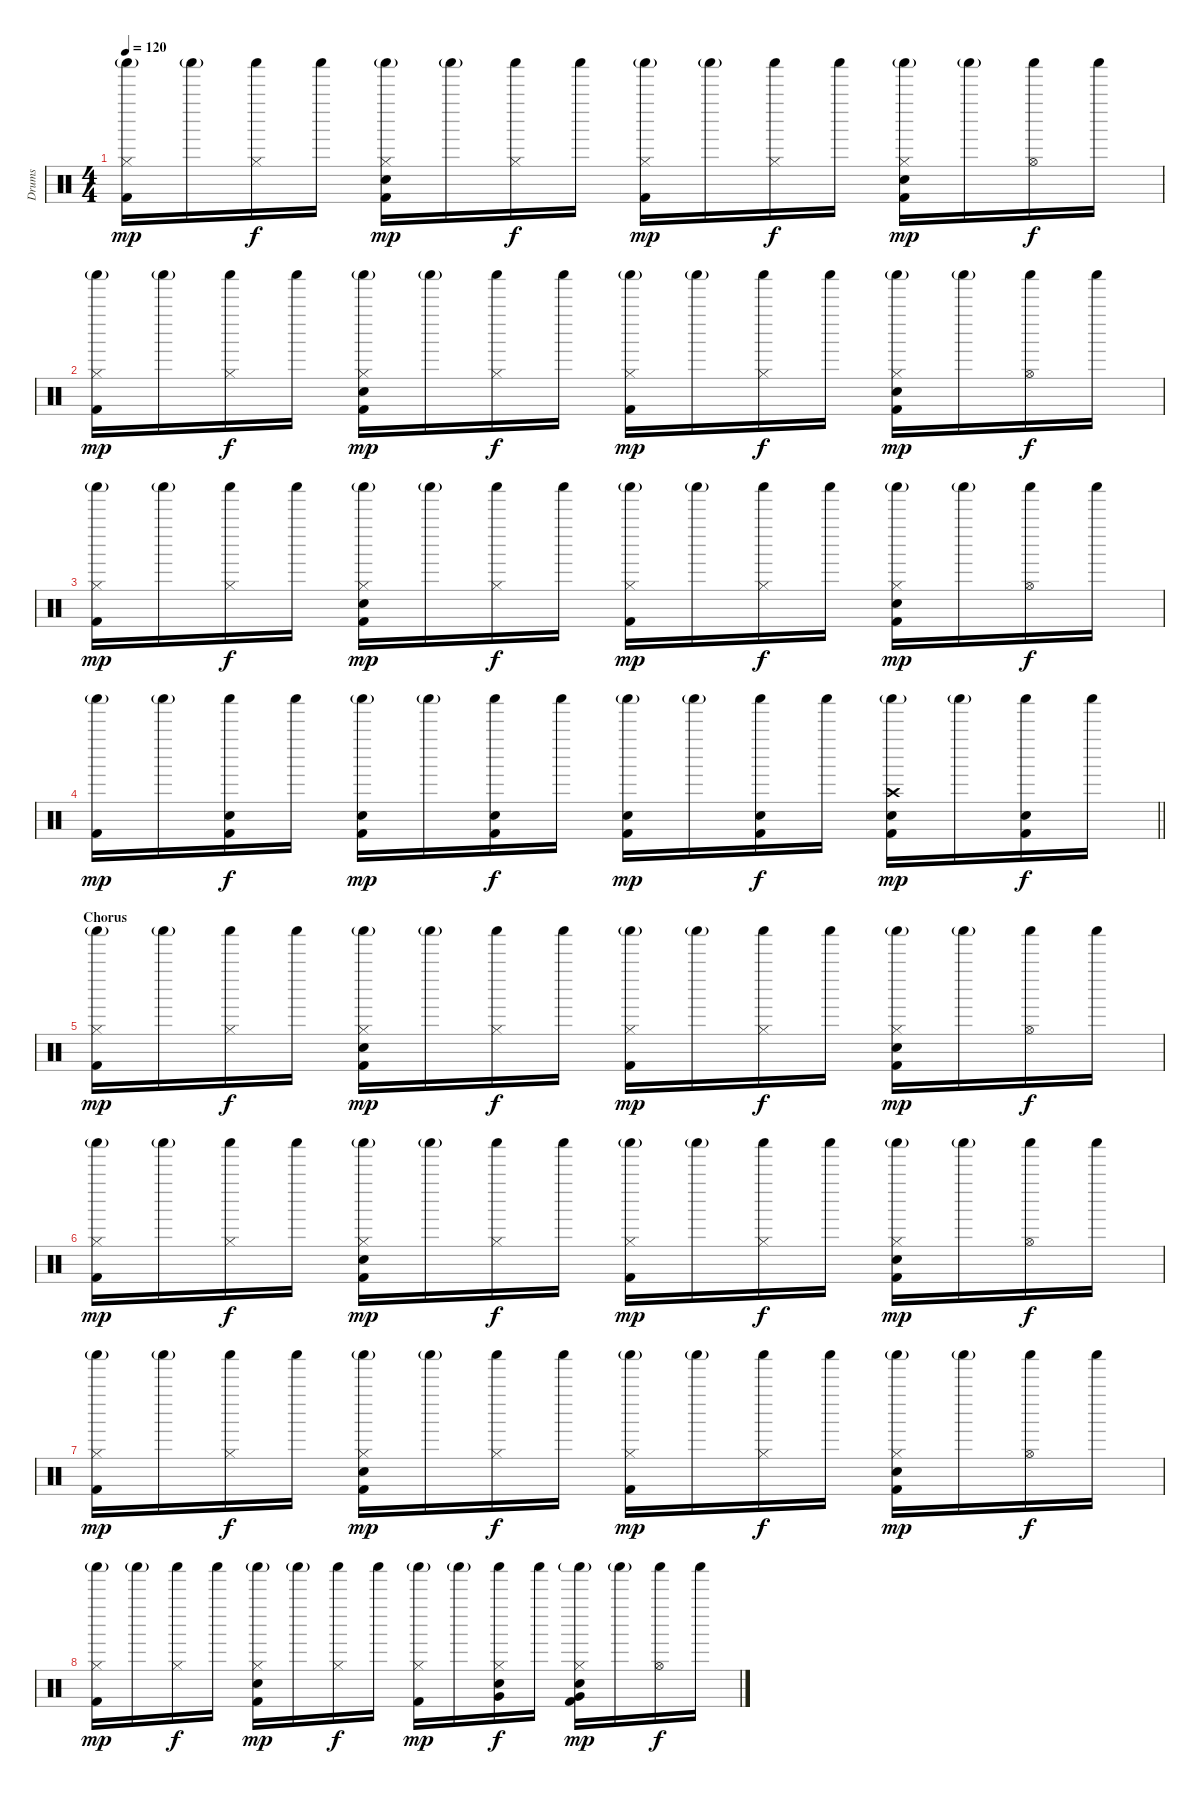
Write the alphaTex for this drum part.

\track ("Drums" "Drums") {instrument percussion}
\staff {score}
\articulation defaults
\ts (4 4)
\tempo 120
\clef neutral
\ks c
("Hi-Hat (closed)" "Shaker (hit)"{g} "Kick (hit) 2").16{dy mp} "Shaker (hit)"{g}.16 ("Hi-Hat (closed)" "Shaker (hit)").16{dy f} "Shaker (hit)".16 ("Hi-Hat (closed)" "Shaker (hit)"{g} "Electric Snare (hit)" "Kick (hit) 2").16{dy mp} "Shaker (hit)"{g}.16 ("Hi-Hat (closed)" "Shaker (hit)").16{dy f} "Shaker (hit)".16 ("Hi-Hat (closed)" "Shaker (hit)"{g} "Kick (hit) 2").16{dy mp} "Shaker (hit)"{g}.16 ("Hi-Hat (closed)" "Shaker (hit)").16{dy f} "Shaker (hit)".16 ("Hi-Hat (closed)" "Shaker (hit)"{g} "Electric Snare (hit)" "Kick (hit) 2").16{dy mp} "Shaker (hit)"{g}.16 ("Hi-Hat (open)" "Shaker (hit)").16{dy f} "Shaker (hit)".16 |
("Hi-Hat (closed)" "Shaker (hit)"{g} "Kick (hit) 2").16{dy mp} "Shaker (hit)"{g}.16 ("Hi-Hat (closed)" "Shaker (hit)").16{dy f} "Shaker (hit)".16 ("Hi-Hat (closed)" "Shaker (hit)"{g} "Electric Snare (hit)" "Kick (hit) 2").16{dy mp} "Shaker (hit)"{g}.16 ("Hi-Hat (closed)" "Shaker (hit)").16{dy f} "Shaker (hit)".16 ("Hi-Hat (closed)" "Shaker (hit)"{g} "Kick (hit) 2").16{dy mp} "Shaker (hit)"{g}.16 ("Hi-Hat (closed)" "Shaker (hit)").16{dy f} "Shaker (hit)".16 ("Hi-Hat (closed)" "Shaker (hit)"{g} "Electric Snare (hit)" "Kick (hit) 2").16{dy mp} "Shaker (hit)"{g}.16 ("Hi-Hat (open)" "Shaker (hit)").16{dy f} "Shaker (hit)".16 |
("Hi-Hat (closed)" "Shaker (hit)"{g} "Kick (hit) 2").16{dy mp} "Shaker (hit)"{g}.16 ("Hi-Hat (closed)" "Shaker (hit)").16{dy f} "Shaker (hit)".16 ("Hi-Hat (closed)" "Shaker (hit)"{g} "Electric Snare (hit)" "Kick (hit) 2").16{dy mp} "Shaker (hit)"{g}.16 ("Hi-Hat (closed)" "Shaker (hit)").16{dy f} "Shaker (hit)".16 ("Hi-Hat (closed)" "Shaker (hit)"{g} "Kick (hit) 2").16{dy mp} "Shaker (hit)"{g}.16 ("Hi-Hat (closed)" "Shaker (hit)").16{dy f} "Shaker (hit)".16 ("Hi-Hat (closed)" "Shaker (hit)"{g} "Electric Snare (hit)" "Kick (hit) 2").16{dy mp} "Shaker (hit)"{g}.16 ("Hi-Hat (open)" "Shaker (hit)").16{dy f} "Shaker (hit)".16 |
\barLineRight lightlight
("Shaker (hit)"{g} "Kick (hit) 2").16{dy mp} "Shaker (hit)"{g}.16 ("Shaker (hit)" "Electric Snare (hit)" "Kick (hit) 2").16{dy f} "Shaker (hit)".16 ("Shaker (hit)"{g} "Electric Snare (hit)" "Kick (hit) 2").16{dy mp} "Shaker (hit)"{g}.16 ("Shaker (hit)" "Electric Snare (hit)" "Kick (hit) 2").16{dy f} "Shaker (hit)".16 ("Shaker (hit)"{g} "Electric Snare (hit)" "Kick (hit) 2").16{dy mp} "Shaker (hit)"{g}.16 ("Shaker (hit)" "Electric Snare (hit)" "Kick (hit) 2").16{dy f} "Shaker (hit)".16 ("Crash high (hit)" "Shaker (hit)"{g} "Electric Snare (hit)" "Kick (hit) 2").16{dy mp} "Shaker (hit)"{g}.16 ("Shaker (hit)" "Electric Snare (hit)" "Kick (hit) 2").16{dy f} "Shaker (hit)".16 |
\section ("" "Chorus")
("Hi-Hat (closed)" "Shaker (hit)"{g} "Kick (hit) 2").16{dy mp} "Shaker (hit)"{g}.16 ("Hi-Hat (closed)" "Shaker (hit)").16{dy f} "Shaker (hit)".16 ("Hi-Hat (closed)" "Shaker (hit)"{g} "Electric Snare (hit)" "Kick (hit) 2").16{dy mp} "Shaker (hit)"{g}.16 ("Hi-Hat (closed)" "Shaker (hit)").16{dy f} "Shaker (hit)".16 ("Hi-Hat (closed)" "Shaker (hit)"{g} "Kick (hit) 2").16{dy mp} "Shaker (hit)"{g}.16 ("Hi-Hat (closed)" "Shaker (hit)").16{dy f} "Shaker (hit)".16 ("Hi-Hat (closed)" "Shaker (hit)"{g} "Electric Snare (hit)" "Kick (hit) 2").16{dy mp} "Shaker (hit)"{g}.16 ("Hi-Hat (open)" "Shaker (hit)").16{dy f} "Shaker (hit)".16 |
("Hi-Hat (closed)" "Shaker (hit)"{g} "Kick (hit) 2").16{dy mp} "Shaker (hit)"{g}.16 ("Hi-Hat (closed)" "Shaker (hit)").16{dy f} "Shaker (hit)".16 ("Hi-Hat (closed)" "Shaker (hit)"{g} "Electric Snare (hit)" "Kick (hit) 2").16{dy mp} "Shaker (hit)"{g}.16 ("Hi-Hat (closed)" "Shaker (hit)").16{dy f} "Shaker (hit)".16 ("Hi-Hat (closed)" "Shaker (hit)"{g} "Kick (hit) 2").16{dy mp} "Shaker (hit)"{g}.16 ("Hi-Hat (closed)" "Shaker (hit)").16{dy f} "Shaker (hit)".16 ("Hi-Hat (closed)" "Shaker (hit)"{g} "Electric Snare (hit)" "Kick (hit) 2").16{dy mp} "Shaker (hit)"{g}.16 ("Hi-Hat (open)" "Shaker (hit)").16{dy f} "Shaker (hit)".16 |
("Hi-Hat (closed)" "Shaker (hit)"{g} "Kick (hit) 2").16{dy mp} "Shaker (hit)"{g}.16 ("Hi-Hat (closed)" "Shaker (hit)").16{dy f} "Shaker (hit)".16 ("Hi-Hat (closed)" "Shaker (hit)"{g} "Electric Snare (hit)" "Kick (hit) 2").16{dy mp} "Shaker (hit)"{g}.16 ("Hi-Hat (closed)" "Shaker (hit)").16{dy f} "Shaker (hit)".16 ("Hi-Hat (closed)" "Shaker (hit)"{g} "Kick (hit) 2").16{dy mp} "Shaker (hit)"{g}.16 ("Hi-Hat (closed)" "Shaker (hit)").16{dy f} "Shaker (hit)".16 ("Hi-Hat (closed)" "Shaker (hit)"{g} "Electric Snare (hit)" "Kick (hit) 2").16{dy mp} "Shaker (hit)"{g}.16 ("Hi-Hat (open)" "Shaker (hit)").16{dy f} "Shaker (hit)".16 |
("Hi-Hat (closed)" "Shaker (hit)"{g} "Kick (hit) 2").16{dy mp} "Shaker (hit)"{g}.16 ("Hi-Hat (closed)" "Shaker (hit)").16{dy f} "Shaker (hit)".16 ("Hi-Hat (closed)" "Shaker (hit)"{g} "Electric Snare (hit)" "Kick (hit) 2").16{dy mp} "Shaker (hit)"{g}.16 ("Hi-Hat (closed)" "Shaker (hit)").16{dy f} "Shaker (hit)".16 ("Hi-Hat (closed)" "Shaker (hit)"{g} "Kick (hit) 2").16{dy mp} "Shaker (hit)"{g}.16 ("Hi-Hat (closed)" "Shaker (hit)" "Very Low Tom (hit)" "Electric Snare (hit)").16{dy f} "Shaker (hit)".16 ("Hi-Hat (closed)" "Shaker (hit)"{g} "Very Low Tom (hit)" "Electric Snare (hit)" "Kick (hit) 2").16{dy mp} "Shaker (hit)"{g}.16 ("Hi-Hat (open)" "Shaker (hit)").16{dy f} "Shaker (hit)".16
